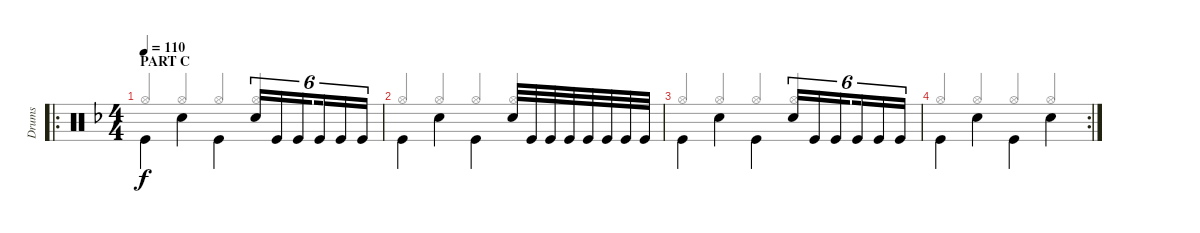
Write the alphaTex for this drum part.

\track ("Drums" "Drums") {instrument percussion}
\staff {score}
\articulation defaults
\voice
\ro
\ts (4 4)
\section ("" "PART C")
\tempo 110
\clef neutral
\ks f "Kick (hit)".4{dy f beam Down} "Snare (hit) 2".4{beam Down} "Kick (hit)".4{beam Down} "Snare (hit) 2".16{tu (6 4)} "Kick (hit)".16{tu (6 4)} "Kick (hit)".16{tu (6 4) beam splitsecondary} "Kick (hit)".16{tu (6 4)} "Kick (hit)".16{tu (6 4)} "Kick (hit)".16{tu (6 4)}
|
"Kick (hit)".4{beam Down} "Snare (hit) 2".4{beam Down} "Kick (hit)".4{beam Down} "Snare (hit) 2".32 "Kick (hit)".32 "Kick (hit)".32 "Kick (hit)".32 "Kick (hit)".32 "Kick (hit)".32 "Kick (hit)".32 "Kick (hit)".32 |
"Kick (hit)".4{beam Down} "Snare (hit) 2".4{beam Down} "Kick (hit)".4{beam Down} "Snare (hit) 2".16{tu (6 4)} "Kick (hit)".16{tu (6 4)} "Kick (hit)".16{tu (6 4) beam splitsecondary} "Kick (hit)".16{tu (6 4)} "Kick (hit)".16{tu (6 4)} "Kick (hit)".16{tu (6 4)} |
\rc 2 "Kick (hit)".4{beam Down} "Snare (hit) 2".4{beam Down} "Kick (hit)".4{beam Down} "Snare (hit) 2".4{beam Down}
\voice
\clef neutral
\ottava regular
\simile none
\ks f "Hi-Hat (open)".4{dy f beam Up} "Hi-Hat (open)".4{beam Up} "Hi-Hat (open)".4{beam Up} "Hi-Hat (open)".4{beam Up}
|
"Hi-Hat (open)".4{beam Up} "Hi-Hat (open)".4{beam Up} "Hi-Hat (open)".4{beam Up} "Hi-Hat (open)".4{beam Up} |
"Hi-Hat (open)".4{beam Up} "Hi-Hat (open)".4{beam Up} "Hi-Hat (open)".4{beam Up} "Hi-Hat (open)".4{beam Up} |
"Hi-Hat (open)".4{beam Up} "Hi-Hat (open)".4{beam Up} "Hi-Hat (open)".4{beam Up} "Hi-Hat (open)".4{beam Up}
